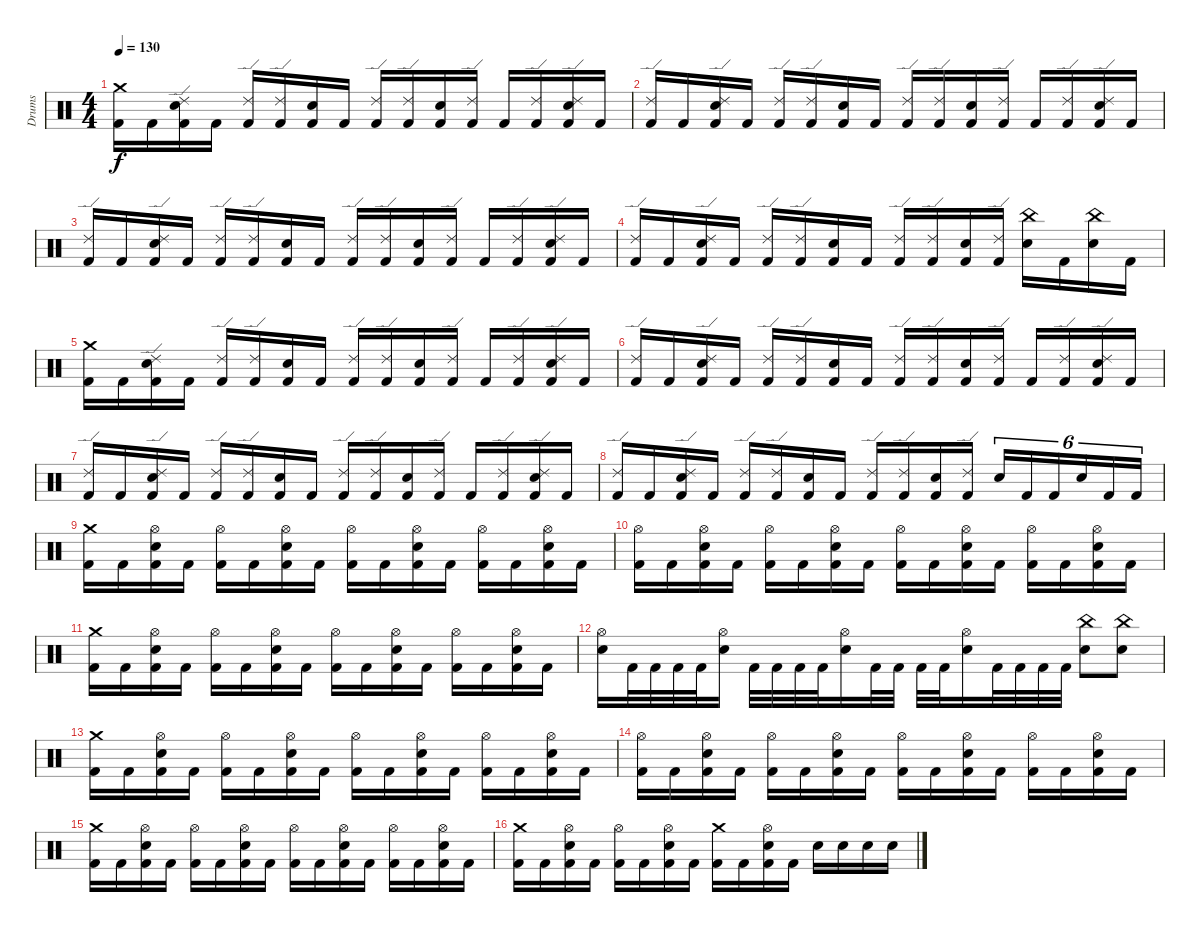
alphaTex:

\track ("Drums" "Drums") {instrument percussion}
\staff {score}
\articulation defaults
\ts (4 4)
\tempo 130
\clef neutral
\ks c
("Crash medium (hit)" "Kick (hit) 2").16{dy f} "Kick (hit) 2".16 ("Electric Snare (hit)" "Ride (edge) 2" "Kick (hit) 2").16 "Kick (hit) 2".16 ("Ride (edge) 2" "Kick (hit) 2").16 ("Ride (edge) 2" "Kick (hit) 2").16 ("Electric Snare (hit)" "Kick (hit) 2").16 "Kick (hit) 2".16 ("Ride (edge) 2" "Kick (hit) 2").16 ("Ride (edge) 2" "Kick (hit) 2").16 ("Electric Snare (hit)" "Kick (hit) 2").16 ("Ride (edge) 2" "Kick (hit) 2").16 "Kick (hit) 2".16 ("Ride (edge) 2" "Kick (hit) 2").16 ("Electric Snare (hit)" "Ride (edge) 2" "Kick (hit) 2").16 "Kick (hit) 2".16 |
("Ride (edge) 2" "Kick (hit) 2").16 "Kick (hit) 2".16 ("Electric Snare (hit)" "Ride (edge) 2" "Kick (hit) 2").16 "Kick (hit) 2".16 ("Ride (edge) 2" "Kick (hit) 2").16 ("Ride (edge) 2" "Kick (hit) 2").16 ("Electric Snare (hit)" "Kick (hit) 2").16 "Kick (hit) 2".16 ("Ride (edge) 2" "Kick (hit) 2").16 ("Ride (edge) 2" "Kick (hit) 2").16 ("Electric Snare (hit)" "Kick (hit) 2").16 ("Ride (edge) 2" "Kick (hit) 2").16 "Kick (hit) 2".16 ("Ride (edge) 2" "Kick (hit) 2").16 ("Electric Snare (hit)" "Ride (edge) 2" "Kick (hit) 2").16 "Kick (hit) 2".16 |
("Ride (edge) 2" "Kick (hit) 2").16 "Kick (hit) 2".16 ("Electric Snare (hit)" "Ride (edge) 2" "Kick (hit) 2").16 "Kick (hit) 2".16 ("Ride (edge) 2" "Kick (hit) 2").16 ("Ride (edge) 2" "Kick (hit) 2").16 ("Electric Snare (hit)" "Kick (hit) 2").16 "Kick (hit) 2".16 ("Ride (edge) 2" "Kick (hit) 2").16 ("Ride (edge) 2" "Kick (hit) 2").16 ("Electric Snare (hit)" "Kick (hit) 2").16 ("Ride (edge) 2" "Kick (hit) 2").16 "Kick (hit) 2".16 ("Ride (edge) 2" "Kick (hit) 2").16 ("Electric Snare (hit)" "Ride (edge) 2" "Kick (hit) 2").16 "Kick (hit) 2".16 |
("Ride (edge) 2" "Kick (hit) 2").16 "Kick (hit) 2".16 ("Electric Snare (hit)" "Ride (edge) 2" "Kick (hit) 2").16 "Kick (hit) 2".16 ("Ride (edge) 2" "Kick (hit) 2").16 ("Ride (edge) 2" "Kick (hit) 2").16 ("Electric Snare (hit)" "Kick (hit) 2").16 "Kick (hit) 2".16 ("Ride (edge) 2" "Kick (hit) 2").16 ("Ride (edge) 2" "Kick (hit) 2").16 ("Electric Snare (hit)" "Kick (hit) 2").16 ("Ride (edge) 2" "Kick (hit) 2").16 ("China (hit)" "Electric Snare (hit)").16 "Kick (hit) 2".16 ("China (hit)" "Electric Snare (hit)").16 "Kick (hit) 2".16 |
("Crash medium (hit)" "Kick (hit) 2").16 "Kick (hit) 2".16 ("Electric Snare (hit)" "Ride (edge) 2" "Kick (hit) 2").16 "Kick (hit) 2".16 ("Ride (edge) 2" "Kick (hit) 2").16 ("Ride (edge) 2" "Kick (hit) 2").16 ("Electric Snare (hit)" "Kick (hit) 2").16 "Kick (hit) 2".16 ("Ride (edge) 2" "Kick (hit) 2").16 ("Ride (edge) 2" "Kick (hit) 2").16 ("Electric Snare (hit)" "Kick (hit) 2").16 ("Ride (edge) 2" "Kick (hit) 2").16 "Kick (hit) 2".16 ("Ride (edge) 2" "Kick (hit) 2").16 ("Electric Snare (hit)" "Ride (edge) 2" "Kick (hit) 2").16 "Kick (hit) 2".16 |
("Ride (edge) 2" "Kick (hit) 2").16 "Kick (hit) 2".16 ("Electric Snare (hit)" "Ride (edge) 2" "Kick (hit) 2").16 "Kick (hit) 2".16 ("Ride (edge) 2" "Kick (hit) 2").16 ("Ride (edge) 2" "Kick (hit) 2").16 ("Electric Snare (hit)" "Kick (hit) 2").16 "Kick (hit) 2".16 ("Ride (edge) 2" "Kick (hit) 2").16 ("Ride (edge) 2" "Kick (hit) 2").16 ("Electric Snare (hit)" "Kick (hit) 2").16 ("Ride (edge) 2" "Kick (hit) 2").16 "Kick (hit) 2".16 ("Ride (edge) 2" "Kick (hit) 2").16 ("Electric Snare (hit)" "Ride (edge) 2" "Kick (hit) 2").16 "Kick (hit) 2".16 |
("Ride (edge) 2" "Kick (hit) 2").16 "Kick (hit) 2".16 ("Electric Snare (hit)" "Ride (edge) 2" "Kick (hit) 2").16 "Kick (hit) 2".16 ("Ride (edge) 2" "Kick (hit) 2").16 ("Ride (edge) 2" "Kick (hit) 2").16 ("Electric Snare (hit)" "Kick (hit) 2").16 "Kick (hit) 2".16 ("Ride (edge) 2" "Kick (hit) 2").16 ("Ride (edge) 2" "Kick (hit) 2").16 ("Electric Snare (hit)" "Kick (hit) 2").16 ("Ride (edge) 2" "Kick (hit) 2").16 "Kick (hit) 2".16 ("Ride (edge) 2" "Kick (hit) 2").16 ("Electric Snare (hit)" "Ride (edge) 2" "Kick (hit) 2").16 "Kick (hit) 2".16 |
("Ride (edge) 2" "Kick (hit) 2").16 "Kick (hit) 2".16 ("Electric Snare (hit)" "Ride (edge) 2" "Kick (hit) 2").16 "Kick (hit) 2".16 ("Ride (edge) 2" "Kick (hit) 2").16 ("Ride (edge) 2" "Kick (hit) 2").16 ("Electric Snare (hit)" "Kick (hit) 2").16 "Kick (hit) 2".16 ("Ride (edge) 2" "Kick (hit) 2").16 ("Ride (edge) 2" "Kick (hit) 2").16 ("Electric Snare (hit)" "Kick (hit) 2").16 ("Ride (edge) 2" "Kick (hit) 2").16 "Electric Snare (hit)".16{tu (6 4)} "Kick (hit) 2".16{tu (6 4)} "Kick (hit) 2".16{tu (6 4)} "Electric Snare (hit)".16{tu (6 4)} "Kick (hit) 2".16{tu (6 4)} "Kick (hit) 2".16{tu (6 4)} |
("Kick (hit) 2" "Crash medium (hit)").16 "Kick (hit) 2".16 ("Hi-Hat (open)" "Kick (hit) 2" "Electric Snare (hit)").16 "Kick (hit) 2".16 ("Kick (hit) 2" "Hi-Hat (open)").16 "Kick (hit) 2".16 ("Kick (hit) 2" "Electric Snare (hit)" "Hi-Hat (open)").16 "Kick (hit) 2".16 ("Kick (hit) 2" "Hi-Hat (open)").16 "Kick (hit) 2".16 ("Kick (hit) 2" "Electric Snare (hit)" "Hi-Hat (open)").16 "Kick (hit) 2".16 ("Kick (hit) 2" "Hi-Hat (open)").16 "Kick (hit) 2".16 ("Kick (hit) 2" "Electric Snare (hit)" "Hi-Hat (open)").16 "Kick (hit) 2".16 |
("Hi-Hat (open)" "Kick (hit) 2").16 "Kick (hit) 2".16 ("Hi-Hat (open)" "Kick (hit) 2" "Electric Snare (hit)").16 "Kick (hit) 2".16 ("Kick (hit) 2" "Hi-Hat (open)").16 "Kick (hit) 2".16 ("Kick (hit) 2" "Electric Snare (hit)" "Hi-Hat (open)").16 "Kick (hit) 2".16 ("Kick (hit) 2" "Hi-Hat (open)").16 "Kick (hit) 2".16 ("Kick (hit) 2" "Electric Snare (hit)" "Hi-Hat (open)").16 "Kick (hit) 2".16 ("Kick (hit) 2" "Hi-Hat (open)").16 "Kick (hit) 2".16 ("Kick (hit) 2" "Electric Snare (hit)" "Hi-Hat (open)").16 "Kick (hit) 2".16 |
("Kick (hit) 2" "Crash medium (hit)").16 "Kick (hit) 2".16 ("Hi-Hat (open)" "Kick (hit) 2" "Electric Snare (hit)").16 "Kick (hit) 2".16 ("Kick (hit) 2" "Hi-Hat (open)").16 "Kick (hit) 2".16 ("Kick (hit) 2" "Electric Snare (hit)" "Hi-Hat (open)").16 "Kick (hit) 2".16 ("Kick (hit) 2" "Hi-Hat (open)").16 "Kick (hit) 2".16 ("Kick (hit) 2" "Electric Snare (hit)" "Hi-Hat (open)").16 "Kick (hit) 2".16 ("Kick (hit) 2" "Hi-Hat (open)").16 "Kick (hit) 2".16 ("Kick (hit) 2" "Electric Snare (hit)" "Hi-Hat (open)").16 "Kick (hit) 2".16 |
("Electric Snare (hit)" "Hi-Hat (open)").16 "Kick (hit) 2".32 "Kick (hit) 2".32 "Kick (hit) 2".32 "Kick (hit) 2".32 ("Hi-Hat (open)" "Electric Snare (hit)").16 "Kick (hit) 2".32 "Kick (hit) 2".32 "Kick (hit) 2".32 "Kick (hit) 2".32 ("Hi-Hat (open)" "Electric Snare (hit)").16 "Kick (hit) 2".32 "Kick (hit) 2".32 "Kick (hit) 2".32 "Kick (hit) 2".32 ("Hi-Hat (open)" "Electric Snare (hit)").16 "Kick (hit) 2".32 "Kick (hit) 2".32 "Kick (hit) 2".32 "Kick (hit) 2".32 ("China (hit)" "Electric Snare (hit)").8 ("China (hit)" "Electric Snare (hit)").8 |
("Kick (hit) 2" "Crash medium (hit)").16 "Kick (hit) 2".16 ("Hi-Hat (open)" "Kick (hit) 2" "Electric Snare (hit)").16 "Kick (hit) 2".16 ("Kick (hit) 2" "Hi-Hat (open)").16 "Kick (hit) 2".16 ("Kick (hit) 2" "Electric Snare (hit)" "Hi-Hat (open)").16 "Kick (hit) 2".16 ("Kick (hit) 2" "Hi-Hat (open)").16 "Kick (hit) 2".16 ("Kick (hit) 2" "Electric Snare (hit)" "Hi-Hat (open)").16 "Kick (hit) 2".16 ("Kick (hit) 2" "Hi-Hat (open)").16 "Kick (hit) 2".16 ("Kick (hit) 2" "Electric Snare (hit)" "Hi-Hat (open)").16 "Kick (hit) 2".16 |
("Hi-Hat (open)" "Kick (hit) 2").16 "Kick (hit) 2".16 ("Hi-Hat (open)" "Kick (hit) 2" "Electric Snare (hit)").16 "Kick (hit) 2".16 ("Kick (hit) 2" "Hi-Hat (open)").16 "Kick (hit) 2".16 ("Kick (hit) 2" "Electric Snare (hit)" "Hi-Hat (open)").16 "Kick (hit) 2".16 ("Kick (hit) 2" "Hi-Hat (open)").16 "Kick (hit) 2".16 ("Kick (hit) 2" "Electric Snare (hit)" "Hi-Hat (open)").16 "Kick (hit) 2".16 ("Kick (hit) 2" "Hi-Hat (open)").16 "Kick (hit) 2".16 ("Kick (hit) 2" "Electric Snare (hit)" "Hi-Hat (open)").16 "Kick (hit) 2".16 |
("Kick (hit) 2" "Crash medium (hit)").16 "Kick (hit) 2".16 ("Hi-Hat (open)" "Kick (hit) 2" "Electric Snare (hit)").16 "Kick (hit) 2".16 ("Kick (hit) 2" "Hi-Hat (open)").16 "Kick (hit) 2".16 ("Kick (hit) 2" "Electric Snare (hit)" "Hi-Hat (open)").16 "Kick (hit) 2".16 ("Kick (hit) 2" "Hi-Hat (open)").16 "Kick (hit) 2".16 ("Kick (hit) 2" "Electric Snare (hit)" "Hi-Hat (open)").16 "Kick (hit) 2".16 ("Kick (hit) 2" "Hi-Hat (open)").16 "Kick (hit) 2".16 ("Kick (hit) 2" "Electric Snare (hit)" "Hi-Hat (open)").16 "Kick (hit) 2".16 |
("Kick (hit) 2" "Crash medium (hit)").16 "Kick (hit) 2".16 ("Hi-Hat (open)" "Kick (hit) 2" "Electric Snare (hit)").16 "Kick (hit) 2".16 ("Kick (hit) 2" "Hi-Hat (open)").16 "Kick (hit) 2".16 ("Kick (hit) 2" "Electric Snare (hit)" "Hi-Hat (open)").16 "Kick (hit) 2".16 ("Crash medium (hit)" "Kick (hit) 2").16 "Kick (hit) 2".16 ("Kick (hit) 2" "Electric Snare (hit)" "Hi-Hat (open)").16 "Kick (hit) 2".16 "Electric Snare (hit)".16 "Electric Snare (hit)".16 "Electric Snare (hit)".16 "Electric Snare (hit)".16
